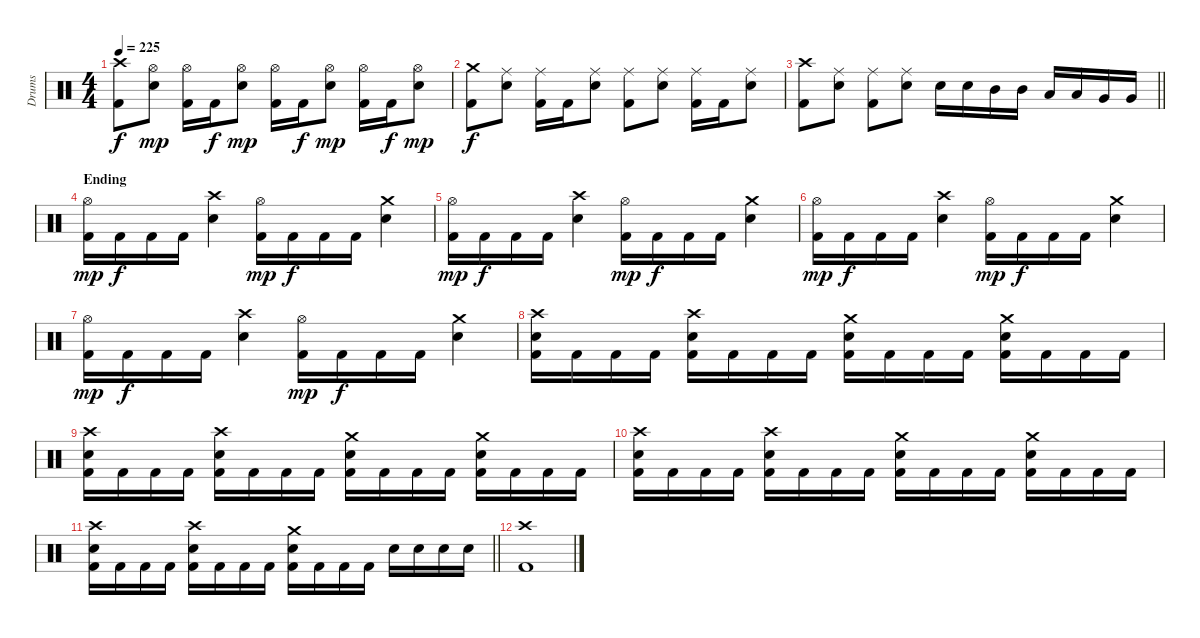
\track ("Drums" "Drums") {instrument percussion}
\staff {score}
\articulation defaults
\ts (4 4)
\tempo 225
\clef neutral
\ks c
("Crash high (hit)" "Kick (hit) 2").8{dy f} ("Hi-Hat (open)" "Snare (hit) 2").8{dy mp} ("Hi-Hat (open)" "Kick (hit) 2").16 "Kick (hit) 2".16{dy f} ("Hi-Hat (open)" "Snare (hit) 2").8{dy mp} ("Hi-Hat (open)" "Kick (hit) 2").16 "Kick (hit) 2".16{dy f} ("Hi-Hat (open)" "Snare (hit) 2").8{dy mp} ("Hi-Hat (open)" "Kick (hit) 2").16 "Kick (hit) 2".16{dy f} ("Hi-Hat (open)" "Snare (hit) 2").8{dy mp} |
("Crash medium (hit)" "Kick (hit) 2").8{dy f} ("Ride (middle)" "Snare (hit) 2").8 ("Ride (middle)" "Kick (hit) 2").16 "Kick (hit) 2".16 ("Ride (middle)" "Snare (hit) 2").8 ("Ride (middle)" "Kick (hit) 2").8 ("Ride (middle)" "Snare (hit) 2").8 ("Ride (middle)" "Kick (hit) 2").16 "Kick (hit) 2".16 ("Ride (middle)" "Snare (hit) 2").8 |
\barLineRight lightlight
("Crash high (hit)" "Kick (hit) 2").8 ("Ride (middle)" "Snare (hit) 2").8 ("Ride (middle)" "Kick (hit) 2").8 ("Ride (middle)" "Snare (hit) 2").8 "Snare (hit) 2".16 "Snare (hit) 2".16 "Mid Tom (hit)".16 "Mid Tom (hit)".16 "Low Tom (hit)".16 "Low Tom (hit)".16 "Very Low Tom (hit)".16 "Very Low Tom (hit)".16 |
\section ("" "Ending")
("Hi-Hat (open)" "Kick (hit) 2").16{dy mp} "Kick (hit) 2".16{dy f} "Kick (hit) 2".16 "Kick (hit) 2".16 ("Crash high (hit)" "Snare (hit) 2").4 ("Hi-Hat (open)" "Kick (hit) 2").16{dy mp} "Kick (hit) 2".16{dy f} "Kick (hit) 2".16 "Kick (hit) 2".16 ("Crash medium (hit)" "Snare (hit) 2").4 |
("Hi-Hat (open)" "Kick (hit) 2").16{dy mp} "Kick (hit) 2".16{dy f} "Kick (hit) 2".16 "Kick (hit) 2".16 ("Crash high (hit)" "Snare (hit) 2").4 ("Hi-Hat (open)" "Kick (hit) 2").16{dy mp} "Kick (hit) 2".16{dy f} "Kick (hit) 2".16 "Kick (hit) 2".16 ("Crash medium (hit)" "Snare (hit) 2").4 |
("Hi-Hat (open)" "Kick (hit) 2").16{dy mp} "Kick (hit) 2".16{dy f} "Kick (hit) 2".16 "Kick (hit) 2".16 ("Crash high (hit)" "Snare (hit) 2").4 ("Hi-Hat (open)" "Kick (hit) 2").16{dy mp} "Kick (hit) 2".16{dy f} "Kick (hit) 2".16 "Kick (hit) 2".16 ("Crash medium (hit)" "Snare (hit) 2").4 |
("Hi-Hat (open)" "Kick (hit) 2").16{dy mp} "Kick (hit) 2".16{dy f} "Kick (hit) 2".16 "Kick (hit) 2".16 ("Crash high (hit)" "Snare (hit) 2").4 ("Hi-Hat (open)" "Kick (hit) 2").16{dy mp} "Kick (hit) 2".16{dy f} "Kick (hit) 2".16 "Kick (hit) 2".16 ("Crash medium (hit)" "Snare (hit) 2").4 |
("Crash high (hit)" "Snare (hit) 2" "Kick (hit) 2").16 "Kick (hit) 2".16 "Kick (hit) 2".16 "Kick (hit) 2".16 ("Crash high (hit)" "Snare (hit) 2" "Kick (hit) 2").16 "Kick (hit) 2".16 "Kick (hit) 2".16 "Kick (hit) 2".16 ("Crash medium (hit)" "Snare (hit) 2" "Kick (hit) 2").16 "Kick (hit) 2".16 "Kick (hit) 2".16 "Kick (hit) 2".16 ("Crash medium (hit)" "Snare (hit) 2" "Kick (hit) 2").16 "Kick (hit) 2".16 "Kick (hit) 2".16 "Kick (hit) 2".16 |
("Crash high (hit)" "Snare (hit) 2" "Kick (hit) 2").16 "Kick (hit) 2".16 "Kick (hit) 2".16 "Kick (hit) 2".16 ("Crash high (hit)" "Snare (hit) 2" "Kick (hit) 2").16 "Kick (hit) 2".16 "Kick (hit) 2".16 "Kick (hit) 2".16 ("Crash medium (hit)" "Snare (hit) 2" "Kick (hit) 2").16 "Kick (hit) 2".16 "Kick (hit) 2".16 "Kick (hit) 2".16 ("Crash medium (hit)" "Snare (hit) 2" "Kick (hit) 2").16 "Kick (hit) 2".16 "Kick (hit) 2".16 "Kick (hit) 2".16 |
("Crash high (hit)" "Snare (hit) 2" "Kick (hit) 2").16 "Kick (hit) 2".16 "Kick (hit) 2".16 "Kick (hit) 2".16 ("Crash high (hit)" "Snare (hit) 2" "Kick (hit) 2").16 "Kick (hit) 2".16 "Kick (hit) 2".16 "Kick (hit) 2".16 ("Crash medium (hit)" "Snare (hit) 2" "Kick (hit) 2").16 "Kick (hit) 2".16 "Kick (hit) 2".16 "Kick (hit) 2".16 ("Crash medium (hit)" "Snare (hit) 2" "Kick (hit) 2").16 "Kick (hit) 2".16 "Kick (hit) 2".16 "Kick (hit) 2".16 |
\barLineRight lightlight
("Crash high (hit)" "Snare (hit) 2" "Kick (hit) 2").16 "Kick (hit) 2".16 "Kick (hit) 2".16 "Kick (hit) 2".16 ("Crash high (hit)" "Snare (hit) 2" "Kick (hit) 2").16 "Kick (hit) 2".16 "Kick (hit) 2".16 "Kick (hit) 2".16 ("Crash medium (hit)" "Snare (hit) 2" "Kick (hit) 2").16 "Kick (hit) 2".16 "Kick (hit) 2".16 "Kick (hit) 2".16 "Snare (hit) 2".16 "Snare (hit) 2".16 "Snare (hit) 2".16 "Snare (hit) 2".16 |
("Crash high (hit)" "Kick (hit) 2").1
